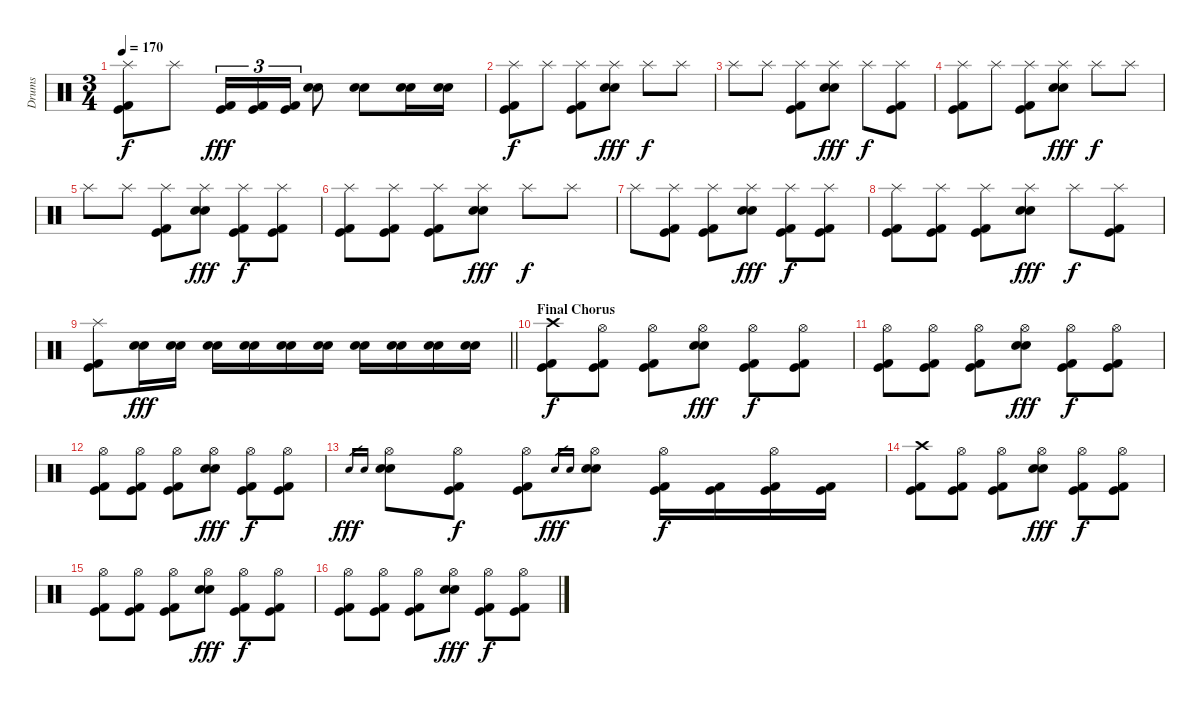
\track ("Drums" "Drums") {instrument percussion}
\staff {score}
\articulation defaults
\ts (3 4)
\tempo 170
\clef neutral
\ks c
("Splash (hit)" "Kick (hit)" "Kick (hit) 2").8{dy f} "Splash (hit)".8 ("Kick (hit)" "Kick (hit) 2").16{tu (3 2) dy fff} ("Kick (hit)" "Kick (hit) 2").16{tu (3 2)} ("Kick (hit)" "Kick (hit) 2").16{tu (3 2)} ("Electric Snare (hit)" "Electric Snare (hit)").8 ("Electric Snare (hit)" "Electric Snare (hit)").8 ("Electric Snare (hit)" "Electric Snare (hit)").16 ("Electric Snare (hit)" "Electric Snare (hit)").16 |
("Splash (hit)" "Kick (hit)" "Kick (hit) 2").8{dy f} "Splash (hit)".8 ("Splash (hit)" "Kick (hit)" "Kick (hit) 2").8 ("Splash (hit)" "Electric Snare (hit)" "Electric Snare (hit)").8{dy fff} "Splash (hit)".8{dy f} "Splash (hit)".8 |
"Splash (hit)".8 "Splash (hit)".8 ("Splash (hit)" "Kick (hit)" "Kick (hit) 2").8 ("Splash (hit)" "Electric Snare (hit)" "Electric Snare (hit)").8{dy fff} "Splash (hit)".8{dy f} ("Splash (hit)" "Kick (hit)" "Kick (hit) 2").8 |
("Splash (hit)" "Kick (hit)" "Kick (hit) 2").8 "Splash (hit)".8 ("Splash (hit)" "Kick (hit)" "Kick (hit) 2").8 ("Splash (hit)" "Electric Snare (hit)" "Electric Snare (hit)").8{dy fff} "Splash (hit)".8{dy f} "Splash (hit)".8 |
"Splash (hit)".8 "Splash (hit)".8 ("Splash (hit)" "Kick (hit)" "Kick (hit) 2").8 ("Splash (hit)" "Electric Snare (hit)" "Electric Snare (hit)").8{dy fff} ("Splash (hit)" "Kick (hit)" "Kick (hit) 2").8{dy f} ("Splash (hit)" "Kick (hit)" "Kick (hit) 2").8 |
("Splash (hit)" "Kick (hit)" "Kick (hit) 2").8 ("Splash (hit)" "Kick (hit)" "Kick (hit) 2").8 ("Splash (hit)" "Kick (hit)" "Kick (hit) 2").8 ("Splash (hit)" "Electric Snare (hit)" "Electric Snare (hit)").8{dy fff} "Splash (hit)".8{dy f} "Splash (hit)".8 |
"Splash (hit)".8 ("Splash (hit)" "Kick (hit)" "Kick (hit) 2").8 ("Splash (hit)" "Kick (hit)" "Kick (hit) 2").8 ("Splash (hit)" "Electric Snare (hit)" "Electric Snare (hit)").8{dy fff} ("Splash (hit)" "Kick (hit)" "Kick (hit) 2").8{dy f} ("Splash (hit)" "Kick (hit)" "Kick (hit) 2").8 |
("Splash (hit)" "Kick (hit)" "Kick (hit) 2").8 ("Splash (hit)" "Kick (hit)" "Kick (hit) 2").8 ("Splash (hit)" "Kick (hit)" "Kick (hit) 2").8 ("Splash (hit)" "Electric Snare (hit)" "Electric Snare (hit)").8{dy fff} "Splash (hit)".8{dy f} ("Splash (hit)" "Kick (hit)" "Kick (hit) 2").8 |
\barLineRight lightlight
("Splash (hit)" "Kick (hit)" "Kick (hit) 2").8 ("Electric Snare (hit)" "Electric Snare (hit)").16{dy fff} ("Electric Snare (hit)" "Electric Snare (hit)").16 ("Electric Snare (hit)" "Electric Snare (hit)").16 ("Electric Snare (hit)" "Electric Snare (hit)").16 ("Electric Snare (hit)" "Electric Snare (hit)").16 ("Electric Snare (hit)" "Electric Snare (hit)").16 ("Electric Snare (hit)" "Electric Snare (hit)").16 ("Electric Snare (hit)" "Electric Snare (hit)").16 ("Electric Snare (hit)" "Electric Snare (hit)").16 ("Electric Snare (hit)" "Electric Snare (hit)").16 |
\section ("" "Final Chorus")
("Crash high (hit)" "Kick (hit)" "Kick (hit) 2").8{dy f} ("Hi-Hat (open)" "Kick (hit)" "Kick (hit) 2").8 ("Hi-Hat (open)" "Kick (hit)" "Kick (hit) 2").8 ("Hi-Hat (open)" "Electric Snare (hit)" "Electric Snare (hit)").8{dy fff} ("Hi-Hat (open)" "Kick (hit)" "Kick (hit) 2").8{dy f} ("Hi-Hat (open)" "Kick (hit)" "Kick (hit) 2").8 |
("Hi-Hat (open)" "Kick (hit)" "Kick (hit) 2").8 ("Hi-Hat (open)" "Kick (hit)" "Kick (hit) 2").8 ("Hi-Hat (open)" "Kick (hit)" "Kick (hit) 2").8 ("Hi-Hat (open)" "Electric Snare (hit)" "Electric Snare (hit)").8{dy fff} ("Hi-Hat (open)" "Kick (hit)" "Kick (hit) 2").8{dy f} ("Hi-Hat (open)" "Kick (hit)" "Kick (hit) 2").8 |
("Hi-Hat (open)" "Kick (hit)" "Kick (hit) 2").8 ("Hi-Hat (open)" "Kick (hit)" "Kick (hit) 2").8 ("Hi-Hat (open)" "Kick (hit)" "Kick (hit) 2").8 ("Hi-Hat (open)" "Electric Snare (hit)" "Electric Snare (hit)").8{dy fff} ("Hi-Hat (open)" "Kick (hit)" "Kick (hit) 2").8{dy f} ("Hi-Hat (open)" "Kick (hit)" "Kick (hit) 2").8 |
"Electric Snare (hit)".16{gr dy fff} "Electric Snare (hit)".16{gr} ("Hi-Hat (open)" "Electric Snare (hit)" "Electric Snare (hit)").8 ("Hi-Hat (open)" "Kick (hit)" "Kick (hit) 2").8{dy f} ("Hi-Hat (open)" "Kick (hit)" "Kick (hit) 2").8 "Electric Snare (hit)".16{gr dy fff} "Electric Snare (hit)".16{gr} ("Hi-Hat (open)" "Electric Snare (hit)" "Electric Snare (hit)").8 ("Hi-Hat (open)" "Kick (hit)" "Kick (hit) 2").16{dy f} ("Kick (hit)" "Kick (hit) 2").16 ("Hi-Hat (open)" "Kick (hit)" "Kick (hit) 2").16 ("Kick (hit)" "Kick (hit) 2").16 |
("Crash high (hit)" "Kick (hit)" "Kick (hit) 2").8 ("Hi-Hat (open)" "Kick (hit)" "Kick (hit) 2").8 ("Hi-Hat (open)" "Kick (hit)" "Kick (hit) 2").8 ("Hi-Hat (open)" "Electric Snare (hit)" "Electric Snare (hit)").8{dy fff} ("Hi-Hat (open)" "Kick (hit)" "Kick (hit) 2").8{dy f} ("Hi-Hat (open)" "Kick (hit)" "Kick (hit) 2").8 |
("Hi-Hat (open)" "Kick (hit)" "Kick (hit) 2").8 ("Hi-Hat (open)" "Kick (hit)" "Kick (hit) 2").8 ("Hi-Hat (open)" "Kick (hit)" "Kick (hit) 2").8 ("Hi-Hat (open)" "Electric Snare (hit)" "Electric Snare (hit)").8{dy fff} ("Hi-Hat (open)" "Kick (hit)" "Kick (hit) 2").8{dy f} ("Hi-Hat (open)" "Kick (hit)" "Kick (hit) 2").8 |
("Hi-Hat (open)" "Kick (hit)" "Kick (hit) 2").8 ("Hi-Hat (open)" "Kick (hit)" "Kick (hit) 2").8 ("Hi-Hat (open)" "Kick (hit)" "Kick (hit) 2").8 ("Hi-Hat (open)" "Electric Snare (hit)" "Electric Snare (hit)").8{dy fff} ("Hi-Hat (open)" "Kick (hit)" "Kick (hit) 2").8{dy f} ("Hi-Hat (open)" "Kick (hit)" "Kick (hit) 2").8
